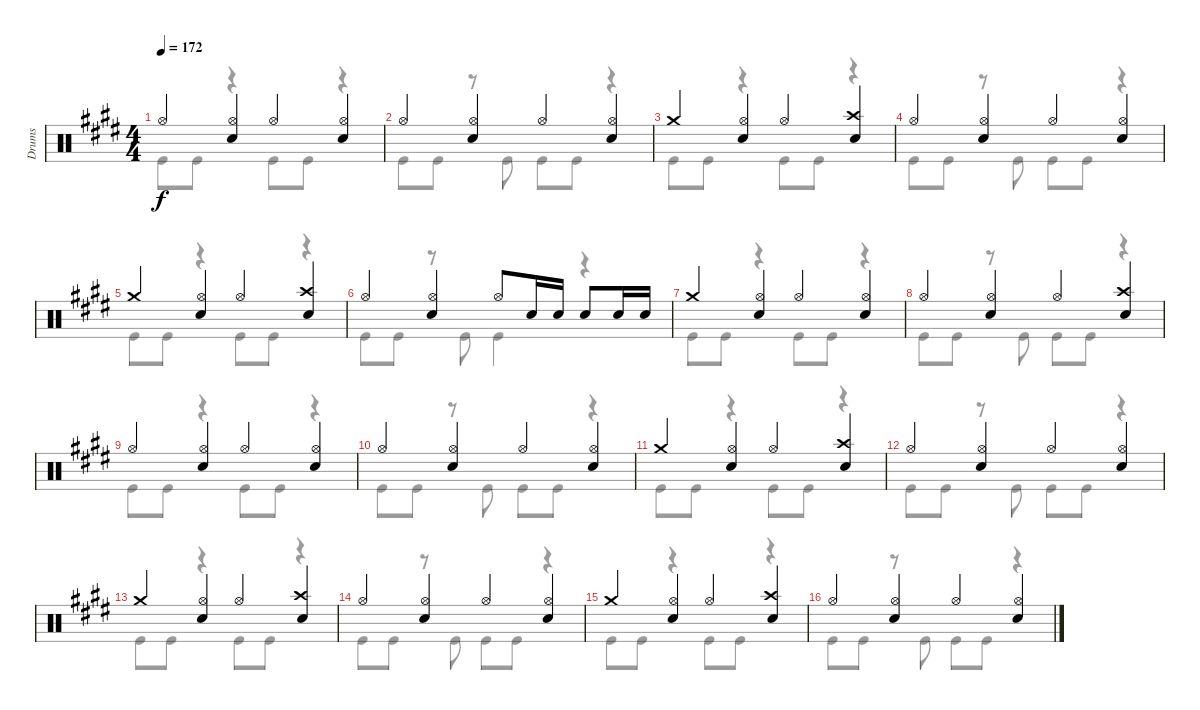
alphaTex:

\track ("Drums" "Drums") {instrument percussion}
\staff {score}
\articulation defaults
\voice
\ts (4 4)
\tempo 172
\clef neutral
\ks e "Hi-Hat (open)".4{dy f}
("Hi-Hat (open)" "Electric Snare (hit)").4 "Hi-Hat (open)".4 ("Hi-Hat (open)" "Electric Snare (hit)").4 |
"Hi-Hat (open)".4 ("Hi-Hat (open)" "Electric Snare (hit)").4 "Hi-Hat (open)".4 ("Hi-Hat (open)" "Electric Snare (hit)").4 |
"Crash medium (hit)".4 ("Hi-Hat (open)" "Electric Snare (hit)").4 "Hi-Hat (open)".4 ("Crash high (hit)" "Electric Snare (hit)").4 |
"Hi-Hat (open)".4 ("Hi-Hat (open)" "Electric Snare (hit)").4 "Hi-Hat (open)".4 ("Hi-Hat (open)" "Electric Snare (hit)").4 |
"Crash medium (hit)".4 ("Hi-Hat (open)" "Electric Snare (hit)").4 "Hi-Hat (open)".4 ("Crash high (hit)" "Electric Snare (hit)").4 |
"Hi-Hat (open)".4 ("Hi-Hat (open)" "Electric Snare (hit)").4 "Hi-Hat (open)".8 "Electric Snare (hit)".16 "Electric Snare (hit)".16 "Electric Snare (hit)".8 "Electric Snare (hit)".16 "Electric Snare (hit)".16 |
"Crash medium (hit)".4 ("Hi-Hat (open)" "Electric Snare (hit)").4 "Hi-Hat (open)".4 ("Hi-Hat (open)" "Electric Snare (hit)").4 |
"Hi-Hat (open)".4 ("Hi-Hat (open)" "Electric Snare (hit)").4 "Hi-Hat (open)".4 ("Crash high (hit)" "Electric Snare (hit)").4 |
"Hi-Hat (open)".4 ("Hi-Hat (open)" "Electric Snare (hit)").4 "Hi-Hat (open)".4 ("Hi-Hat (open)" "Electric Snare (hit)").4 |
"Hi-Hat (open)".4 ("Hi-Hat (open)" "Electric Snare (hit)").4 "Hi-Hat (open)".4 ("Hi-Hat (open)" "Electric Snare (hit)").4 |
"Crash medium (hit)".4 ("Hi-Hat (open)" "Electric Snare (hit)").4 "Hi-Hat (open)".4 ("Crash high (hit)" "Electric Snare (hit)").4 |
"Hi-Hat (open)".4 ("Hi-Hat (open)" "Electric Snare (hit)").4 "Hi-Hat (open)".4 ("Hi-Hat (open)" "Electric Snare (hit)").4 |
"Crash medium (hit)".4 ("Hi-Hat (open)" "Electric Snare (hit)").4 "Hi-Hat (open)".4 ("Crash high (hit)" "Electric Snare (hit)").4 |
"Hi-Hat (open)".4 ("Hi-Hat (open)" "Electric Snare (hit)").4 "Hi-Hat (open)".4 ("Hi-Hat (open)" "Electric Snare (hit)").4 |
"Crash medium (hit)".4 ("Hi-Hat (open)" "Electric Snare (hit)").4 "Hi-Hat (open)".4 ("Crash high (hit)" "Electric Snare (hit)").4 |
"Hi-Hat (open)".4 ("Hi-Hat (open)" "Electric Snare (hit)").4 "Hi-Hat (open)".4 ("Hi-Hat (open)" "Electric Snare (hit)").4
\voice
\clef neutral
\ottava regular
\simile none
\ks e "Kick (hit)".8{dy f} "Kick (hit)".8
r.4 "Kick (hit)".8 "Kick (hit)".8 r.4 |
"Kick (hit)".8 "Kick (hit)".8 r.8 "Kick (hit)".8 "Kick (hit)".8 "Kick (hit)".8 r.4 |
"Kick (hit)".8 "Kick (hit)".8 r.4 "Kick (hit)".8 "Kick (hit)".8 r.4 |
"Kick (hit)".8 "Kick (hit)".8 r.8 "Kick (hit)".8 "Kick (hit)".8 "Kick (hit)".8 r.4 |
"Kick (hit)".8 "Kick (hit)".8 r.4 "Kick (hit)".8 "Kick (hit)".8 r.4 |
"Kick (hit)".8 "Kick (hit)".8 r.8 "Kick (hit)".8 "Kick (hit)".4 r.4 |
"Kick (hit)".8 "Kick (hit)".8 r.4 "Kick (hit)".8 "Kick (hit)".8 r.4 |
"Kick (hit)".8 "Kick (hit)".8 r.8 "Kick (hit)".8 "Kick (hit)".8 "Kick (hit)".8 r.4 |
"Kick (hit)".8 "Kick (hit)".8 r.4 "Kick (hit)".8 "Kick (hit)".8 r.4 |
"Kick (hit)".8 "Kick (hit)".8 r.8 "Kick (hit)".8 "Kick (hit)".8 "Kick (hit)".8 r.4 |
"Kick (hit)".8 "Kick (hit)".8 r.4 "Kick (hit)".8 "Kick (hit)".8 r.4 |
"Kick (hit)".8 "Kick (hit)".8 r.8 "Kick (hit)".8 "Kick (hit)".8 "Kick (hit)".8 r.4 |
"Kick (hit)".8 "Kick (hit)".8 r.4 "Kick (hit)".8 "Kick (hit)".8 r.4 |
"Kick (hit)".8 "Kick (hit)".8 r.8 "Kick (hit)".8 "Kick (hit)".8 "Kick (hit)".8 r.4 |
"Kick (hit)".8 "Kick (hit)".8 r.4 "Kick (hit)".8 "Kick (hit)".8 r.4 |
"Kick (hit)".8 "Kick (hit)".8 r.8 "Kick (hit)".8 "Kick (hit)".8 "Kick (hit)".8 r.4
